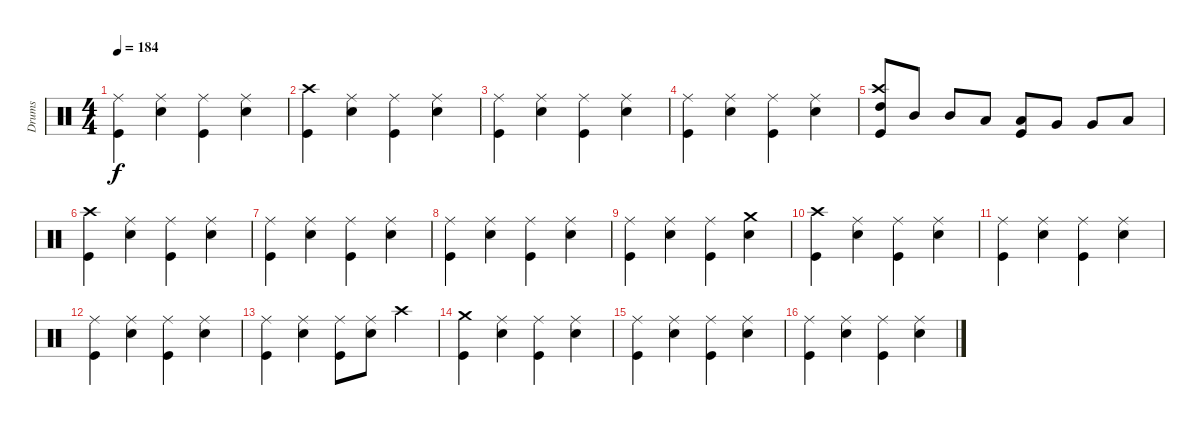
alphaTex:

\track ("Drums" "Drums") {instrument percussion}
\staff {score}
\articulation defaults
\ts (4 4)
\tempo 184
\clef neutral
\ks c
("Ride (middle)" "Kick (hit)").4{dy f} ("Ride (middle)" "Electric Snare (hit)").4 ("Ride (middle)" "Kick (hit)").4 ("Ride (middle)" "Electric Snare (hit)").4 |
("Crash high (hit)" "Kick (hit)").4 ("Ride (middle)" "Electric Snare (hit)").4 ("Ride (middle)" "Kick (hit)").4 ("Ride (middle)" "Electric Snare (hit)").4 |
("Ride (middle)" "Kick (hit)").4 ("Ride (middle)" "Electric Snare (hit)").4 ("Ride (middle)" "Kick (hit)").4 ("Ride (middle)" "Electric Snare (hit)").4 |
("Ride (middle)" "Kick (hit)").4 ("Ride (middle)" "Electric Snare (hit)").4 ("Ride (middle)" "Kick (hit)").4 ("Ride (middle)" "Electric Snare (hit)").4 |
("Crash high (hit)" "High Tom (hit)" "Kick (hit)").8 "Mid Tom (hit)".8 "Mid Tom (hit)".8 "Low Tom (hit)".8 ("Low Tom (hit)" "Kick (hit)").8 "Very Low Tom (hit)".8 "Very Low Tom (hit)".8 "Low Floor Tom (hit)".8 |
("Crash high (hit)" "Kick (hit)").4 ("Ride (middle)" "Electric Snare (hit)").4 ("Ride (middle)" "Kick (hit)").4 ("Ride (middle)" "Electric Snare (hit)").4 |
("Ride (middle)" "Kick (hit)").4 ("Ride (middle)" "Electric Snare (hit)").4 ("Ride (middle)" "Kick (hit)").4 ("Ride (middle)" "Electric Snare (hit)").4 |
("Ride (middle)" "Kick (hit)").4 ("Ride (middle)" "Electric Snare (hit)").4 ("Ride (middle)" "Kick (hit)").4 ("Ride (middle)" "Electric Snare (hit)").4 |
("Ride (middle)" "Kick (hit)").4 ("Ride (middle)" "Electric Snare (hit)").4 ("Ride (middle)" "Kick (hit)").4 ("Crash medium (hit)" "Electric Snare (hit)").4 |
("Crash high (hit)" "Kick (hit)").4 ("Ride (middle)" "Electric Snare (hit)").4 ("Ride (middle)" "Kick (hit)").4 ("Ride (middle)" "Electric Snare (hit)").4 |
("Ride (middle)" "Kick (hit)").4 ("Ride (middle)" "Electric Snare (hit)").4 ("Ride (middle)" "Kick (hit)").4 ("Ride (middle)" "Electric Snare (hit)").4 |
("Ride (middle)" "Kick (hit)").4 ("Ride (middle)" "Electric Snare (hit)").4 ("Ride (middle)" "Kick (hit)").4 ("Ride (middle)" "Electric Snare (hit)").4 |
("Ride (middle)" "Kick (hit)").4 ("Ride (middle)" "Electric Snare (hit)").4 ("Ride (middle)" "Kick (hit)").8 ("Ride (middle)" "Electric Snare (hit)").8 "Crash high (hit)".4 |
("Crash medium (hit)" "Kick (hit)").4 ("Ride (middle)" "Electric Snare (hit)").4 ("Ride (middle)" "Kick (hit)").4 ("Ride (middle)" "Electric Snare (hit)").4 |
("Ride (middle)" "Kick (hit)").4 ("Ride (middle)" "Electric Snare (hit)").4 ("Ride (middle)" "Kick (hit)").4 ("Ride (middle)" "Electric Snare (hit)").4 |
("Ride (middle)" "Kick (hit)").4 ("Ride (middle)" "Electric Snare (hit)").4 ("Ride (middle)" "Kick (hit)").4 ("Ride (middle)" "Electric Snare (hit)").4
